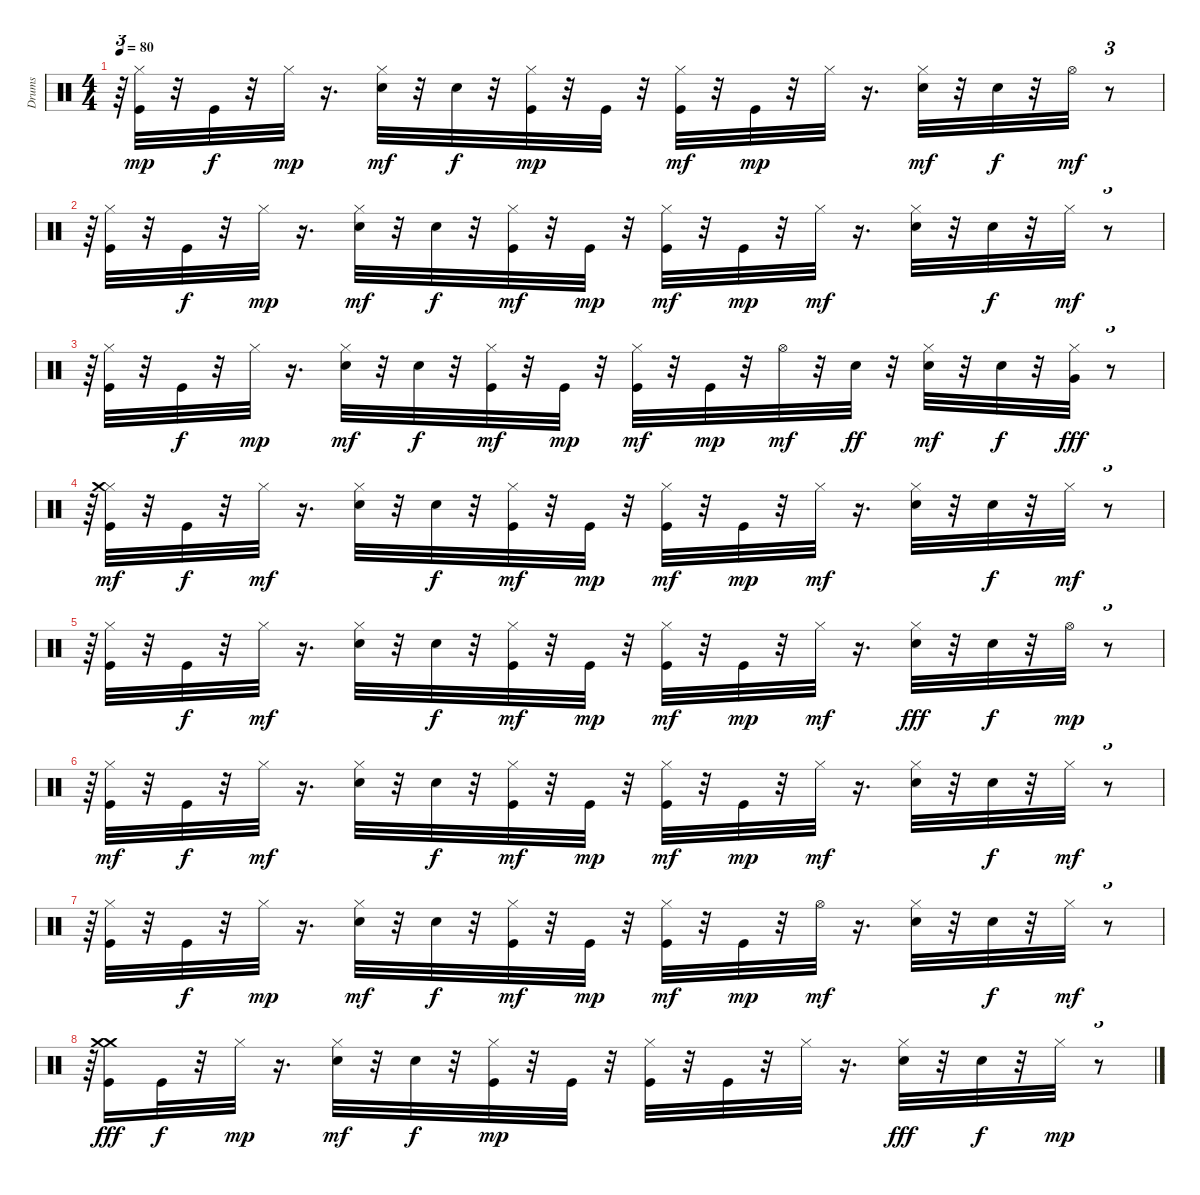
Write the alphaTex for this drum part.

\track ("Drums" "Drums") {instrument percussion}
\staff {score}
\articulation defaults
\ts (4 4)
\tempo 80
\clef neutral
\ks c
r.64{tu (3 2) dy mp} ("Kick (hit)" "Hi-Hat (closed)").32 r.32 "Kick (hit)".32{dy f} r.32 "Hi-Hat (closed)".32{dy mp} r.16{d} ("Snare (hit) 2" "Hi-Hat (closed)").32{dy mf} r.32 "Snare (hit) 2".32{dy f} r.32 ("Kick (hit)" "Hi-Hat (closed)").32{dy mp} r.32 "Kick (hit)".32 r.32 ("Kick (hit)" "Hi-Hat (closed)").32{dy mf} r.32 "Kick (hit)".32{dy mp} r.32 "Hi-Hat (closed)".32 r.16{d} ("Snare (hit) 2" "Hi-Hat (closed)").32{dy mf} r.32 "Snare (hit) 2".32{dy f} r.32 "Hi-Hat (open)".32{dy mf} r.8{tu (3 2)} |
r.64{tu (3 2)} ("Kick (hit)" "Hi-Hat (closed)").32 r.32 "Kick (hit)".32{dy f} r.32 "Hi-Hat (closed)".32{dy mp} r.16{d} ("Snare (hit) 2" "Hi-Hat (closed)").32{dy mf} r.32 "Snare (hit) 2".32{dy f} r.32 ("Kick (hit)" "Hi-Hat (closed)").32{dy mf} r.32 "Kick (hit)".32{dy mp} r.32 ("Kick (hit)" "Hi-Hat (closed)").32{dy mf} r.32 "Kick (hit)".32{dy mp} r.32 "Hi-Hat (closed)".32{dy mf} r.16{d} ("Snare (hit) 2" "Hi-Hat (closed)").32 r.32 "Snare (hit) 2".32{dy f} r.32 "Hi-Hat (closed)".32{dy mf} r.8{tu (3 2)} |
r.64{tu (3 2)} ("Kick (hit)" "Hi-Hat (closed)").32 r.32 "Kick (hit)".32{dy f} r.32 "Hi-Hat (closed)".32{dy mp} r.16{d} ("Snare (hit) 2" "Hi-Hat (closed)").32{dy mf} r.32 "Snare (hit) 2".32{dy f} r.32 ("Kick (hit)" "Hi-Hat (closed)").32{dy mf} r.32 "Kick (hit)".32{dy mp} r.32 ("Kick (hit)" "Hi-Hat (closed)").32{dy mf} r.32 "Kick (hit)".32{dy mp} r.32 "Hi-Hat (open)".32{dy mf} r.32 "Snare (hit) 2".32{dy ff} r.32 ("Snare (hit) 2" "Hi-Hat (closed)").32{dy mf} r.32 "Snare (hit) 2".32{dy f} r.32 ("Hi-Hat (closed)" "Very Low Tom (hit)").32{dy fff} r.8{tu (3 2)} |
r.64{tu (3 2)} ("Kick (hit)" "Hi-Hat (closed)" "Crash medium (hit)").32{dy mf} r.32 "Kick (hit)".32{dy f} r.32 "Hi-Hat (closed)".32{dy mf} r.16{d} ("Snare (hit) 2" "Hi-Hat (closed)").32 r.32 "Snare (hit) 2".32{dy f} r.32 ("Kick (hit)" "Hi-Hat (closed)").32{dy mf} r.32 "Kick (hit)".32{dy mp} r.32 ("Kick (hit)" "Hi-Hat (closed)").32{dy mf} r.32 "Kick (hit)".32{dy mp} r.32 "Hi-Hat (closed)".32{dy mf} r.16{d} ("Snare (hit) 2" "Hi-Hat (closed)").32 r.32 "Snare (hit) 2".32{dy f} r.32 "Hi-Hat (closed)".32{dy mf} r.8{tu (3 2)} |
r.64{tu (3 2)} ("Kick (hit)" "Hi-Hat (closed)").32 r.32 "Kick (hit)".32{dy f} r.32 "Hi-Hat (closed)".32{dy mf} r.16{d} ("Snare (hit) 2" "Hi-Hat (closed)").32 r.32 "Snare (hit) 2".32{dy f} r.32 ("Kick (hit)" "Hi-Hat (closed)").32{dy mf} r.32 "Kick (hit)".32{dy mp} r.32 ("Kick (hit)" "Hi-Hat (closed)").32{dy mf} r.32 "Kick (hit)".32{dy mp} r.32 "Hi-Hat (closed)".32{dy mf} r.16{d} ("Snare (hit) 2" "Hi-Hat (closed)").32{dy fff} r.32 "Snare (hit) 2".32{dy f} r.32 "Hi-Hat (open)".32{dy mp} r.8{tu (3 2)} |
r.64{tu (3 2)} ("Kick (hit)" "Hi-Hat (closed)").32{dy mf} r.32 "Kick (hit)".32{dy f} r.32 "Hi-Hat (closed)".32{dy mf} r.16{d} ("Snare (hit) 2" "Hi-Hat (closed)").32 r.32 "Snare (hit) 2".32{dy f} r.32 ("Kick (hit)" "Hi-Hat (closed)").32{dy mf} r.32 "Kick (hit)".32{dy mp} r.32 ("Kick (hit)" "Hi-Hat (closed)").32{dy mf} r.32 "Kick (hit)".32{dy mp} r.32 "Hi-Hat (closed)".32{dy mf} r.16{d} ("Snare (hit) 2" "Hi-Hat (closed)").32 r.32 "Snare (hit) 2".32{dy f} r.32 "Hi-Hat (closed)".32{dy mf} r.8{tu (3 2)} |
r.64{tu (3 2)} ("Kick (hit)" "Hi-Hat (closed)").32 r.32 "Kick (hit)".32{dy f} r.32 "Hi-Hat (closed)".32{dy mp} r.16{d} ("Snare (hit) 2" "Hi-Hat (closed)").32{dy mf} r.32 "Snare (hit) 2".32{dy f} r.32 ("Kick (hit)" "Hi-Hat (closed)").32{dy mf} r.32 "Kick (hit)".32{dy mp} r.32 ("Kick (hit)" "Hi-Hat (closed)").32{dy mf} r.32 "Kick (hit)".32{dy mp} r.32 "Hi-Hat (open)".32{dy mf} r.16{d} ("Snare (hit) 2" "Hi-Hat (closed)").32 r.32 "Snare (hit) 2".32{dy f} r.32 "Hi-Hat (closed)".32{dy mf} r.8{tu (3 2)} |
r.64{tu (3 2)} ("Kick (hit)" "Crash medium (hit)" "Crash medium (hit)").16{dy fff} "Kick (hit)".32{dy f} r.32 "Hi-Hat (closed)".32{dy mp} r.16{d} ("Snare (hit) 2" "Hi-Hat (closed)").32{dy mf} r.32 "Snare (hit) 2".32{dy f} r.32 ("Kick (hit)" "Hi-Hat (closed)").32{dy mp} r.32 "Kick (hit)".32 r.32 ("Kick (hit)" "Hi-Hat (closed)").32 r.32 "Kick (hit)".32 r.32 "Hi-Hat (closed)".32 r.16{d} ("Snare (hit) 2" "Hi-Hat (closed)").32{dy fff} r.32 "Snare (hit) 2".32{dy f} r.32 "Hi-Hat (closed)".32{dy mp} r.8{tu (3 2)}
